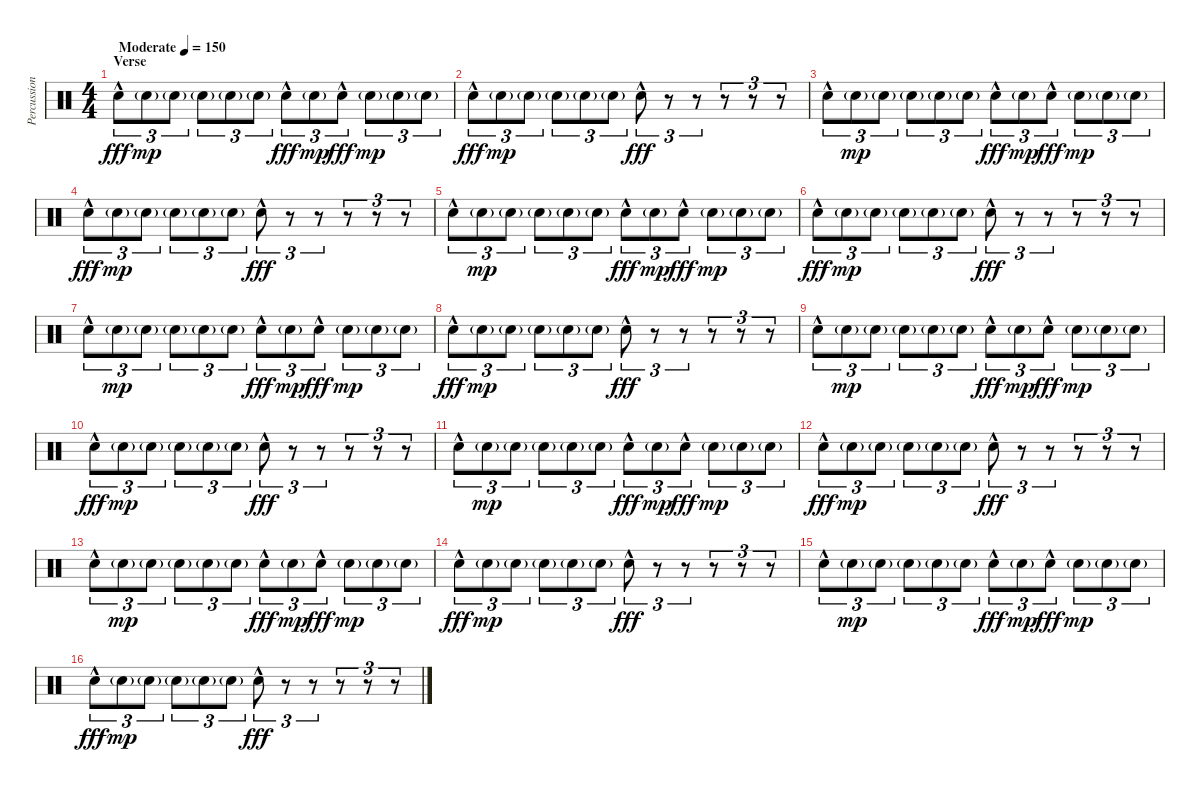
\track ("Percussion" "Percussion") {instrument percussion}
\staff {score}
\articulation defaults
\ts (4 4)
\section ("" "Verse")
\tempo (150 "Moderate")
\clef neutral
\ks c "Electric Snare (hit)"{hac}.8{tu (3 2) dy fff} "Electric Snare (hit)"{g}.8{tu (3 2) dy mp} "Electric Snare (hit)"{g}.8{tu (3 2)} "Electric Snare (hit)"{g}.8{tu (3 2)} "Electric Snare (hit)"{g}.8{tu (3 2)} "Electric Snare (hit)"{g}.8{tu (3 2)} "Electric Snare (hit)"{hac}.8{tu (3 2) dy fff} "Electric Snare (hit)"{g}.8{tu (3 2) dy mp} "Electric Snare (hit)"{hac}.8{tu (3 2) dy fff} "Electric Snare (hit)"{g}.8{tu (3 2) dy mp} "Electric Snare (hit)"{g}.8{tu (3 2)} "Electric Snare (hit)"{g}.8{tu (3 2)}
|
"Electric Snare (hit)"{hac}.8{tu (3 2) dy fff} "Electric Snare (hit)"{g}.8{tu (3 2) dy mp} "Electric Snare (hit)"{g}.8{tu (3 2)} "Electric Snare (hit)"{g}.8{tu (3 2)} "Electric Snare (hit)"{g}.8{tu (3 2)} "Electric Snare (hit)"{g}.8{tu (3 2)} "Electric Snare (hit)"{hac}.8{tu (3 2) dy fff} r.8{tu (3 2)} r.8{tu (3 2)} r.8{tu (3 2)} r.8{tu (3 2)} r.8{tu (3 2)} |
"Electric Snare (hit)"{hac}.8{tu (3 2)} "Electric Snare (hit)"{g}.8{tu (3 2) dy mp} "Electric Snare (hit)"{g}.8{tu (3 2)} "Electric Snare (hit)"{g}.8{tu (3 2)} "Electric Snare (hit)"{g}.8{tu (3 2)} "Electric Snare (hit)"{g}.8{tu (3 2)} "Electric Snare (hit)"{hac}.8{tu (3 2) dy fff} "Electric Snare (hit)"{g}.8{tu (3 2) dy mp} "Electric Snare (hit)"{hac}.8{tu (3 2) dy fff} "Electric Snare (hit)"{g}.8{tu (3 2) dy mp} "Electric Snare (hit)"{g}.8{tu (3 2)} "Electric Snare (hit)"{g}.8{tu (3 2)} |
"Electric Snare (hit)"{hac}.8{tu (3 2) dy fff} "Electric Snare (hit)"{g}.8{tu (3 2) dy mp} "Electric Snare (hit)"{g}.8{tu (3 2)} "Electric Snare (hit)"{g}.8{tu (3 2)} "Electric Snare (hit)"{g}.8{tu (3 2)} "Electric Snare (hit)"{g}.8{tu (3 2)} "Electric Snare (hit)"{hac}.8{tu (3 2) dy fff} r.8{tu (3 2)} r.8{tu (3 2)} r.8{tu (3 2)} r.8{tu (3 2)} r.8{tu (3 2)} |
"Electric Snare (hit)"{hac}.8{tu (3 2)} "Electric Snare (hit)"{g}.8{tu (3 2) dy mp} "Electric Snare (hit)"{g}.8{tu (3 2)} "Electric Snare (hit)"{g}.8{tu (3 2)} "Electric Snare (hit)"{g}.8{tu (3 2)} "Electric Snare (hit)"{g}.8{tu (3 2)} "Electric Snare (hit)"{hac}.8{tu (3 2) dy fff} "Electric Snare (hit)"{g}.8{tu (3 2) dy mp} "Electric Snare (hit)"{hac}.8{tu (3 2) dy fff} "Electric Snare (hit)"{g}.8{tu (3 2) dy mp} "Electric Snare (hit)"{g}.8{tu (3 2)} "Electric Snare (hit)"{g}.8{tu (3 2)} |
"Electric Snare (hit)"{hac}.8{tu (3 2) dy fff} "Electric Snare (hit)"{g}.8{tu (3 2) dy mp} "Electric Snare (hit)"{g}.8{tu (3 2)} "Electric Snare (hit)"{g}.8{tu (3 2)} "Electric Snare (hit)"{g}.8{tu (3 2)} "Electric Snare (hit)"{g}.8{tu (3 2)} "Electric Snare (hit)"{hac}.8{tu (3 2) dy fff} r.8{tu (3 2)} r.8{tu (3 2)} r.8{tu (3 2)} r.8{tu (3 2)} r.8{tu (3 2)} |
"Electric Snare (hit)"{hac}.8{tu (3 2)} "Electric Snare (hit)"{g}.8{tu (3 2) dy mp} "Electric Snare (hit)"{g}.8{tu (3 2)} "Electric Snare (hit)"{g}.8{tu (3 2)} "Electric Snare (hit)"{g}.8{tu (3 2)} "Electric Snare (hit)"{g}.8{tu (3 2)} "Electric Snare (hit)"{hac}.8{tu (3 2) dy fff} "Electric Snare (hit)"{g}.8{tu (3 2) dy mp} "Electric Snare (hit)"{hac}.8{tu (3 2) dy fff} "Electric Snare (hit)"{g}.8{tu (3 2) dy mp} "Electric Snare (hit)"{g}.8{tu (3 2)} "Electric Snare (hit)"{g}.8{tu (3 2)} |
"Electric Snare (hit)"{hac}.8{tu (3 2) dy fff} "Electric Snare (hit)"{g}.8{tu (3 2) dy mp} "Electric Snare (hit)"{g}.8{tu (3 2)} "Electric Snare (hit)"{g}.8{tu (3 2)} "Electric Snare (hit)"{g}.8{tu (3 2)} "Electric Snare (hit)"{g}.8{tu (3 2)} "Electric Snare (hit)"{hac}.8{tu (3 2) dy fff} r.8{tu (3 2)} r.8{tu (3 2)} r.8{tu (3 2)} r.8{tu (3 2)} r.8{tu (3 2)} |
"Electric Snare (hit)"{hac}.8{tu (3 2)} "Electric Snare (hit)"{g}.8{tu (3 2) dy mp} "Electric Snare (hit)"{g}.8{tu (3 2)} "Electric Snare (hit)"{g}.8{tu (3 2)} "Electric Snare (hit)"{g}.8{tu (3 2)} "Electric Snare (hit)"{g}.8{tu (3 2)} "Electric Snare (hit)"{hac}.8{tu (3 2) dy fff} "Electric Snare (hit)"{g}.8{tu (3 2) dy mp} "Electric Snare (hit)"{hac}.8{tu (3 2) dy fff} "Electric Snare (hit)"{g}.8{tu (3 2) dy mp} "Electric Snare (hit)"{g}.8{tu (3 2)} "Electric Snare (hit)"{g}.8{tu (3 2)} |
"Electric Snare (hit)"{hac}.8{tu (3 2) dy fff} "Electric Snare (hit)"{g}.8{tu (3 2) dy mp} "Electric Snare (hit)"{g}.8{tu (3 2)} "Electric Snare (hit)"{g}.8{tu (3 2)} "Electric Snare (hit)"{g}.8{tu (3 2)} "Electric Snare (hit)"{g}.8{tu (3 2)} "Electric Snare (hit)"{hac}.8{tu (3 2) dy fff} r.8{tu (3 2)} r.8{tu (3 2)} r.8{tu (3 2)} r.8{tu (3 2)} r.8{tu (3 2)} |
"Electric Snare (hit)"{hac}.8{tu (3 2)} "Electric Snare (hit)"{g}.8{tu (3 2) dy mp} "Electric Snare (hit)"{g}.8{tu (3 2)} "Electric Snare (hit)"{g}.8{tu (3 2)} "Electric Snare (hit)"{g}.8{tu (3 2)} "Electric Snare (hit)"{g}.8{tu (3 2)} "Electric Snare (hit)"{hac}.8{tu (3 2) dy fff} "Electric Snare (hit)"{g}.8{tu (3 2) dy mp} "Electric Snare (hit)"{hac}.8{tu (3 2) dy fff} "Electric Snare (hit)"{g}.8{tu (3 2) dy mp} "Electric Snare (hit)"{g}.8{tu (3 2)} "Electric Snare (hit)"{g}.8{tu (3 2)} |
"Electric Snare (hit)"{hac}.8{tu (3 2) dy fff} "Electric Snare (hit)"{g}.8{tu (3 2) dy mp} "Electric Snare (hit)"{g}.8{tu (3 2)} "Electric Snare (hit)"{g}.8{tu (3 2)} "Electric Snare (hit)"{g}.8{tu (3 2)} "Electric Snare (hit)"{g}.8{tu (3 2)} "Electric Snare (hit)"{hac}.8{tu (3 2) dy fff} r.8{tu (3 2)} r.8{tu (3 2)} r.8{tu (3 2)} r.8{tu (3 2)} r.8{tu (3 2)} |
"Electric Snare (hit)"{hac}.8{tu (3 2)} "Electric Snare (hit)"{g}.8{tu (3 2) dy mp} "Electric Snare (hit)"{g}.8{tu (3 2)} "Electric Snare (hit)"{g}.8{tu (3 2)} "Electric Snare (hit)"{g}.8{tu (3 2)} "Electric Snare (hit)"{g}.8{tu (3 2)} "Electric Snare (hit)"{hac}.8{tu (3 2) dy fff} "Electric Snare (hit)"{g}.8{tu (3 2) dy mp} "Electric Snare (hit)"{hac}.8{tu (3 2) dy fff} "Electric Snare (hit)"{g}.8{tu (3 2) dy mp} "Electric Snare (hit)"{g}.8{tu (3 2)} "Electric Snare (hit)"{g}.8{tu (3 2)} |
"Electric Snare (hit)"{hac}.8{tu (3 2) dy fff} "Electric Snare (hit)"{g}.8{tu (3 2) dy mp} "Electric Snare (hit)"{g}.8{tu (3 2)} "Electric Snare (hit)"{g}.8{tu (3 2)} "Electric Snare (hit)"{g}.8{tu (3 2)} "Electric Snare (hit)"{g}.8{tu (3 2)} "Electric Snare (hit)"{hac}.8{tu (3 2) dy fff} r.8{tu (3 2)} r.8{tu (3 2)} r.8{tu (3 2)} r.8{tu (3 2)} r.8{tu (3 2)} |
"Electric Snare (hit)"{hac}.8{tu (3 2)} "Electric Snare (hit)"{g}.8{tu (3 2) dy mp} "Electric Snare (hit)"{g}.8{tu (3 2)} "Electric Snare (hit)"{g}.8{tu (3 2)} "Electric Snare (hit)"{g}.8{tu (3 2)} "Electric Snare (hit)"{g}.8{tu (3 2)} "Electric Snare (hit)"{hac}.8{tu (3 2) dy fff} "Electric Snare (hit)"{g}.8{tu (3 2) dy mp} "Electric Snare (hit)"{hac}.8{tu (3 2) dy fff} "Electric Snare (hit)"{g}.8{tu (3 2) dy mp} "Electric Snare (hit)"{g}.8{tu (3 2)} "Electric Snare (hit)"{g}.8{tu (3 2)} |
"Electric Snare (hit)"{hac}.8{tu (3 2) dy fff} "Electric Snare (hit)"{g}.8{tu (3 2) dy mp} "Electric Snare (hit)"{g}.8{tu (3 2)} "Electric Snare (hit)"{g}.8{tu (3 2)} "Electric Snare (hit)"{g}.8{tu (3 2)} "Electric Snare (hit)"{g}.8{tu (3 2)} "Electric Snare (hit)"{hac}.8{tu (3 2) dy fff} r.8{tu (3 2)} r.8{tu (3 2)} r.8{tu (3 2)} r.8{tu (3 2)} r.8{tu (3 2)}
